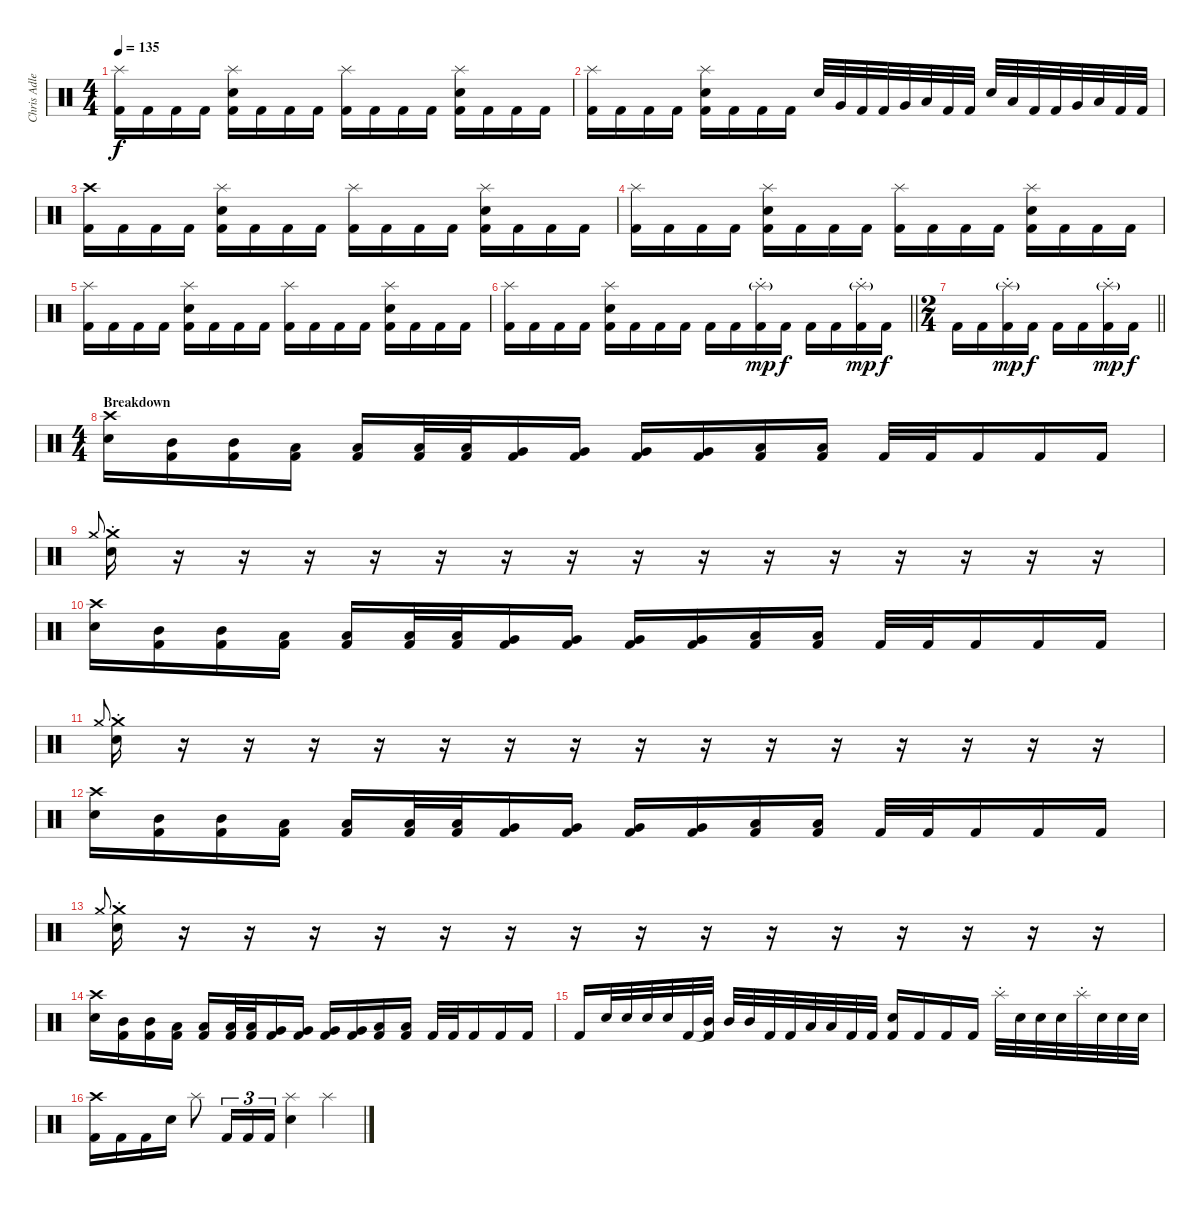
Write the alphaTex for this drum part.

\track ("Chris Adler" "Chris Adle") {instrument percussion}
\staff {score}
\articulation defaults
\ts (4 4)
\tempo 135
\clef neutral
\ks c
("Splash (hit)" "Kick (hit) 2").16{dy f} "Kick (hit) 2".16 "Kick (hit) 2".16 "Kick (hit) 2".16 ("Splash (hit)" "Electric Snare (hit)" "Kick (hit) 2").16 "Kick (hit) 2".16 "Kick (hit) 2".16 "Kick (hit) 2".16 ("Splash (hit)" "Kick (hit) 2").16 "Kick (hit) 2".16 "Kick (hit) 2".16 "Kick (hit) 2".16 ("Splash (hit)" "Electric Snare (hit)" "Kick (hit) 2").16 "Kick (hit) 2".16 "Kick (hit) 2".16 "Kick (hit) 2".16 |
("Splash (hit)" "Kick (hit) 2").16 "Kick (hit) 2".16 "Kick (hit) 2".16 "Kick (hit) 2".16 ("Splash (hit)" "Electric Snare (hit)" "Kick (hit) 2").16 "Kick (hit) 2".16 "Kick (hit) 2".16 "Kick (hit) 2".16 "Electric Snare (hit)".32 "Very Low Tom (hit)".32 "Kick (hit) 2".32 "Kick (hit) 2".32 "Very Low Tom (hit)".32 "Low Floor Tom (hit)".32 "Kick (hit) 2".32 "Kick (hit) 2".32 "Electric Snare (hit)".32 "Low Floor Tom (hit)".32 "Kick (hit) 2".32 "Kick (hit) 2".32 "Very Low Tom (hit)".32 "Low Floor Tom (hit)".32 "Kick (hit) 2".32 "Kick (hit) 2".32 |
("Crash high (hit)" "Kick (hit) 2").16 "Kick (hit) 2".16 "Kick (hit) 2".16 "Kick (hit) 2".16 ("Splash (hit)" "Electric Snare (hit)" "Kick (hit) 2").16 "Kick (hit) 2".16 "Kick (hit) 2".16 "Kick (hit) 2".16 ("Splash (hit)" "Kick (hit) 2").16 "Kick (hit) 2".16 "Kick (hit) 2".16 "Kick (hit) 2".16 ("Splash (hit)" "Electric Snare (hit)" "Kick (hit) 2").16 "Kick (hit) 2".16 "Kick (hit) 2".16 "Kick (hit) 2".16 |
("Splash (hit)" "Kick (hit) 2").16 "Kick (hit) 2".16 "Kick (hit) 2".16 "Kick (hit) 2".16 ("Splash (hit)" "Electric Snare (hit)" "Kick (hit) 2").16 "Kick (hit) 2".16 "Kick (hit) 2".16 "Kick (hit) 2".16 ("Splash (hit)" "Kick (hit) 2").16 "Kick (hit) 2".16 "Kick (hit) 2".16 "Kick (hit) 2".16 ("Splash (hit)" "Electric Snare (hit)" "Kick (hit) 2").16 "Kick (hit) 2".16 "Kick (hit) 2".16 "Kick (hit) 2".16 |
("Splash (hit)" "Kick (hit) 2").16 "Kick (hit) 2".16 "Kick (hit) 2".16 "Kick (hit) 2".16 ("Splash (hit)" "Electric Snare (hit)" "Kick (hit) 2").16 "Kick (hit) 2".16 "Kick (hit) 2".16 "Kick (hit) 2".16 ("Splash (hit)" "Kick (hit) 2").16 "Kick (hit) 2".16 "Kick (hit) 2".16 "Kick (hit) 2".16 ("Splash (hit)" "Electric Snare (hit)" "Kick (hit) 2").16 "Kick (hit) 2".16 "Kick (hit) 2".16 "Kick (hit) 2".16 |
\barLineRight lightlight
("Splash (hit)" "Kick (hit) 2").16 "Kick (hit) 2".16 "Kick (hit) 2".16 "Kick (hit) 2".16 ("Splash (hit)" "Electric Snare (hit)" "Kick (hit) 2").16 "Kick (hit) 2".16 "Kick (hit) 2".16 "Kick (hit) 2".16 "Kick (hit) 2".16 "Kick (hit) 2".16 ("Splash (hit)"{g st} "Kick (hit) 2").16{dy mp} "Kick (hit) 2".16{dy f} "Kick (hit) 2".16 "Kick (hit) 2".16 ("Splash (hit)"{g st} "Kick (hit) 2").16{dy mp} "Kick (hit) 2".16{dy f} |
\ts (2 4)
\barLineRight lightlight "Kick (hit) 2".16 "Kick (hit) 2".16
("Splash (hit)"{g st} "Kick (hit) 2").16{dy mp} "Kick (hit) 2".16{dy f} "Kick (hit) 2".16 "Kick (hit) 2".16 ("Splash (hit)"{g st} "Kick (hit) 2").16{dy mp} "Kick (hit) 2".16{dy f} |
\ts (4 4)
\section ("" "Breakdown")
("Crash high (hit)" "Electric Snare (hit)").16 ("Mid Tom (hit)" "Kick (hit) 2").16 ("Mid Tom (hit)" "Kick (hit) 2").16 ("Low Tom (hit)" "Kick (hit) 2").16 ("Low Tom (hit)" "Kick (hit) 2").16 ("Low Tom (hit)" "Kick (hit) 2").32 ("Low Tom (hit)" "Kick (hit) 2").32 ("Very Low Tom (hit)" "Kick (hit) 2").16 ("Very Low Tom (hit)" "Kick (hit) 2").16 ("Very Low Tom (hit)" "Kick (hit) 2").16 ("Very Low Tom (hit)" "Kick (hit) 2").16 ("Low Floor Tom (hit)" "Kick (hit) 2").16 ("Low Floor Tom (hit)" "Kick (hit) 2").16 "Kick (hit) 2".32 "Kick (hit) 2".32 "Kick (hit) 2".16 "Kick (hit) 2".16 "Kick (hit) 2".16 |
"Crash medium (hit)"{x}.8{gr onbeat} ("Crash medium (hit)"{st} "Electric Snare (hit)").16 r.16 r.16 r.16 r.16 r.16 r.16 r.16 r.16 r.16 r.16 r.16 r.16 r.16 r.16 r.16 |
("Crash high (hit)" "Electric Snare (hit)").16 ("Mid Tom (hit)" "Kick (hit) 2").16 ("Mid Tom (hit)" "Kick (hit) 2").16 ("Low Tom (hit)" "Kick (hit) 2").16 ("Low Tom (hit)" "Kick (hit) 2").16 ("Low Tom (hit)" "Kick (hit) 2").32 ("Low Tom (hit)" "Kick (hit) 2").32 ("Very Low Tom (hit)" "Kick (hit) 2").16 ("Very Low Tom (hit)" "Kick (hit) 2").16 ("Very Low Tom (hit)" "Kick (hit) 2").16 ("Very Low Tom (hit)" "Kick (hit) 2").16 ("Low Floor Tom (hit)" "Kick (hit) 2").16 ("Low Floor Tom (hit)" "Kick (hit) 2").16 "Kick (hit) 2".32 "Kick (hit) 2".32 "Kick (hit) 2".16 "Kick (hit) 2".16 "Kick (hit) 2".16 |
"Crash medium (hit)"{x}.8{gr onbeat} ("Crash medium (hit)"{st} "Electric Snare (hit)").16 r.16 r.16 r.16 r.16 r.16 r.16 r.16 r.16 r.16 r.16 r.16 r.16 r.16 r.16 r.16 |
("Crash high (hit)" "Electric Snare (hit)").16 ("Mid Tom (hit)" "Kick (hit) 2").16 ("Mid Tom (hit)" "Kick (hit) 2").16 ("Low Tom (hit)" "Kick (hit) 2").16 ("Low Tom (hit)" "Kick (hit) 2").16 ("Low Tom (hit)" "Kick (hit) 2").32 ("Low Tom (hit)" "Kick (hit) 2").32 ("Very Low Tom (hit)" "Kick (hit) 2").16 ("Very Low Tom (hit)" "Kick (hit) 2").16 ("Very Low Tom (hit)" "Kick (hit) 2").16 ("Very Low Tom (hit)" "Kick (hit) 2").16 ("Low Floor Tom (hit)" "Kick (hit) 2").16 ("Low Floor Tom (hit)" "Kick (hit) 2").16 "Kick (hit) 2".32 "Kick (hit) 2".32 "Kick (hit) 2".16 "Kick (hit) 2".16 "Kick (hit) 2".16 |
"Crash medium (hit)"{x}.8{gr onbeat} ("Crash medium (hit)"{st} "Electric Snare (hit)").16 r.16 r.16 r.16 r.16 r.16 r.16 r.16 r.16 r.16 r.16 r.16 r.16 r.16 r.16 r.16 |
("Crash high (hit)" "Electric Snare (hit)").16 ("Mid Tom (hit)" "Kick (hit) 2").16 ("Mid Tom (hit)" "Kick (hit) 2").16 ("Low Tom (hit)" "Kick (hit) 2").16 ("Low Tom (hit)" "Kick (hit) 2").16 ("Low Tom (hit)" "Kick (hit) 2").32 ("Low Tom (hit)" "Kick (hit) 2").32 ("Very Low Tom (hit)" "Kick (hit) 2").16 ("Very Low Tom (hit)" "Kick (hit) 2").16 ("Very Low Tom (hit)" "Kick (hit) 2").16 ("Very Low Tom (hit)" "Kick (hit) 2").16 ("Low Floor Tom (hit)" "Kick (hit) 2").16 ("Low Floor Tom (hit)" "Kick (hit) 2").16 "Kick (hit) 2".32 "Kick (hit) 2".32 "Kick (hit) 2".16 "Kick (hit) 2".16 "Kick (hit) 2".16 |
"Kick (hit) 2".16 "Electric Snare (hit)".32 "Electric Snare (hit)".32 "Electric Snare (hit)".32 "Electric Snare (hit)".32 "Kick (hit) 2".32 ("Mid Tom (hit)"{t} "Kick (hit) 2").32 "Mid Tom (hit)".32 "Mid Tom (hit)".32 "Kick (hit) 2".32 "Kick (hit) 2".32 "Low Tom (hit)".32 "Low Tom (hit)".32 "Kick (hit) 2".32 "Kick (hit) 2".32 ("Electric Snare (hit)" "Kick (hit) 2").16 "Kick (hit) 2".16 "Kick (hit) 2".16 "Kick (hit) 2".16 "Splash (hit)"{st}.32 "Electric Snare (hit)".32 "Electric Snare (hit)".32 "Electric Snare (hit)".32 "Splash (hit)"{st}.32 "Electric Snare (hit)".32 "Electric Snare (hit)".32 "Electric Snare (hit)".32 |
("Crash high (hit)" "Kick (hit) 2").16 "Kick (hit) 2".16 "Kick (hit) 2".16 "Electric Snare (hit)".16 "Splash (hit)".8 "Kick (hit) 2".16{tu (3 2)} "Kick (hit) 2".16{tu (3 2)} "Kick (hit) 2".16{tu (3 2)} ("Splash (hit)" "Electric Snare (hit)").4 "Splash (hit)".4
